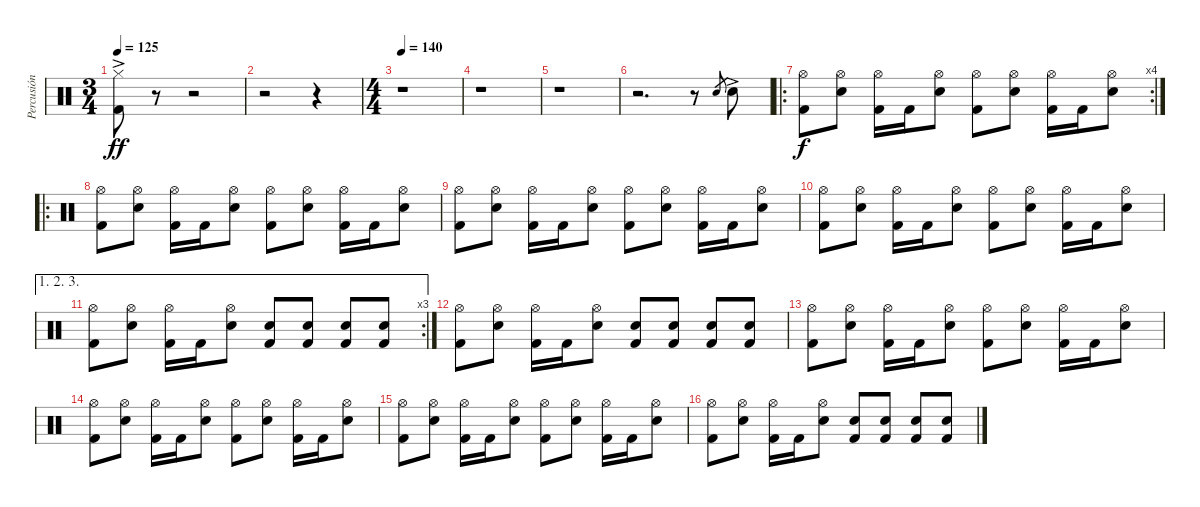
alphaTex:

\track ("Percusión" "Percusión") {instrument percussion}
\staff {score}
\articulation defaults
\ts (3 4)
\tempo 125
\clef neutral
\ks c
("Hi-Hat (closed)"{ac} "Kick (hit) 2"{ac}).8{dy ff} r.8 r.2 |
r.2 r.4 |
\ts (4 4)
\tempo 140
r.1 |
r.1 |
r.1 |
r.2{d} r.8 "Snare (hit) 2".8{gr} "Snare (hit) 2"{ac}.8 |
\ro
\rc 4
("Hi-Hat (open)" "Kick (hit) 2").8{dy f} ("Hi-Hat (open)" "Snare (hit) 2").8 ("Hi-Hat (open)" "Kick (hit) 2").16 "Kick (hit) 2".16 ("Hi-Hat (open)" "Snare (hit) 2").8 ("Hi-Hat (open)" "Kick (hit) 2").8 ("Hi-Hat (open)" "Snare (hit) 2").8 ("Hi-Hat (open)" "Kick (hit) 2").16 "Kick (hit) 2".16 ("Hi-Hat (open)" "Snare (hit) 2").8 |
\ro
("Hi-Hat (open)" "Kick (hit) 2").8 ("Hi-Hat (open)" "Snare (hit) 2").8 ("Hi-Hat (open)" "Kick (hit) 2").16 "Kick (hit) 2".16 ("Hi-Hat (open)" "Snare (hit) 2").8 ("Hi-Hat (open)" "Kick (hit) 2").8 ("Hi-Hat (open)" "Snare (hit) 2").8 ("Hi-Hat (open)" "Kick (hit) 2").16 "Kick (hit) 2".16 ("Hi-Hat (open)" "Snare (hit) 2").8 |
("Hi-Hat (open)" "Kick (hit) 2").8 ("Hi-Hat (open)" "Snare (hit) 2").8 ("Hi-Hat (open)" "Kick (hit) 2").16 "Kick (hit) 2".16 ("Hi-Hat (open)" "Snare (hit) 2").8 ("Hi-Hat (open)" "Kick (hit) 2").8 ("Hi-Hat (open)" "Snare (hit) 2").8 ("Hi-Hat (open)" "Kick (hit) 2").16 "Kick (hit) 2".16 ("Hi-Hat (open)" "Snare (hit) 2").8 |
("Hi-Hat (open)" "Kick (hit) 2").8 ("Hi-Hat (open)" "Snare (hit) 2").8 ("Hi-Hat (open)" "Kick (hit) 2").16 "Kick (hit) 2".16 ("Hi-Hat (open)" "Snare (hit) 2").8 ("Hi-Hat (open)" "Kick (hit) 2").8 ("Hi-Hat (open)" "Snare (hit) 2").8 ("Hi-Hat (open)" "Kick (hit) 2").16 "Kick (hit) 2".16 ("Hi-Hat (open)" "Snare (hit) 2").8 |
\ae (1 2 3)
\rc 3
("Hi-Hat (open)" "Kick (hit) 2").8 ("Hi-Hat (open)" "Snare (hit) 2").8 ("Hi-Hat (open)" "Kick (hit) 2").16 "Kick (hit) 2".16 ("Hi-Hat (open)" "Snare (hit) 2").8 ("Snare (hit) 2" "Kick (hit) 2").8 ("Snare (hit) 2" "Kick (hit) 2").8 ("Snare (hit) 2" "Kick (hit) 2").8 ("Snare (hit) 2" "Kick (hit) 2").8 |
("Hi-Hat (open)" "Kick (hit) 2").8 ("Hi-Hat (open)" "Snare (hit) 2").8 ("Hi-Hat (open)" "Kick (hit) 2").16 "Kick (hit) 2".16 ("Hi-Hat (open)" "Snare (hit) 2").8 ("Snare (hit) 2" "Kick (hit) 2").8 ("Snare (hit) 2" "Kick (hit) 2").8 ("Snare (hit) 2" "Kick (hit) 2").8 ("Snare (hit) 2" "Kick (hit) 2").8 |
("Hi-Hat (open)" "Kick (hit) 2").8 ("Hi-Hat (open)" "Snare (hit) 2").8 ("Hi-Hat (open)" "Kick (hit) 2").16 "Kick (hit) 2".16 ("Hi-Hat (open)" "Snare (hit) 2").8 ("Hi-Hat (open)" "Kick (hit) 2").8 ("Hi-Hat (open)" "Snare (hit) 2").8 ("Hi-Hat (open)" "Kick (hit) 2").16 "Kick (hit) 2".16 ("Hi-Hat (open)" "Snare (hit) 2").8 |
("Hi-Hat (open)" "Kick (hit) 2").8{volume 9} ("Hi-Hat (open)" "Snare (hit) 2").8 ("Hi-Hat (open)" "Kick (hit) 2").16 "Kick (hit) 2".16 ("Hi-Hat (open)" "Snare (hit) 2").8 ("Hi-Hat (open)" "Kick (hit) 2").8 ("Hi-Hat (open)" "Snare (hit) 2").8 ("Hi-Hat (open)" "Kick (hit) 2").16 "Kick (hit) 2".16 ("Hi-Hat (open)" "Snare (hit) 2").8 |
("Hi-Hat (open)" "Kick (hit) 2").8 ("Hi-Hat (open)" "Snare (hit) 2").8 ("Hi-Hat (open)" "Kick (hit) 2").16 "Kick (hit) 2".16 ("Hi-Hat (open)" "Snare (hit) 2").8 ("Hi-Hat (open)" "Kick (hit) 2").8 ("Hi-Hat (open)" "Snare (hit) 2").8 ("Hi-Hat (open)" "Kick (hit) 2").16 "Kick (hit) 2".16 ("Hi-Hat (open)" "Snare (hit) 2").8 |
("Hi-Hat (open)" "Kick (hit) 2").8 ("Hi-Hat (open)" "Snare (hit) 2").8 ("Hi-Hat (open)" "Kick (hit) 2").16 "Kick (hit) 2".16 ("Hi-Hat (open)" "Snare (hit) 2").8 ("Snare (hit) 2" "Kick (hit) 2").8 ("Snare (hit) 2" "Kick (hit) 2").8 ("Snare (hit) 2" "Kick (hit) 2").8 ("Snare (hit) 2" "Kick (hit) 2").8
